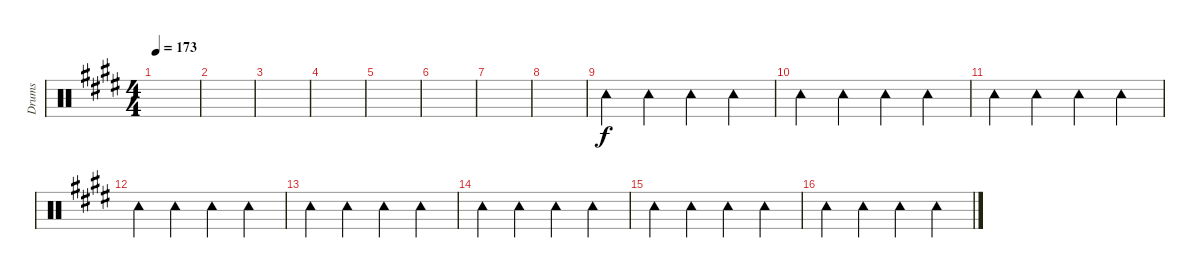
\track ("Drums" "Drums") {instrument percussion}
\staff {score}
\articulation defaults
\ts (4 4)
\tempo 173
\clef neutral
\ks e
|
|
|
|
|
|
|
|
"Tambourine (hit)".4 "Tambourine (hit)".4 "Tambourine (hit)".4 "Tambourine (hit)".4 |
"Tambourine (hit)".4 "Tambourine (hit)".4 "Tambourine (hit)".4 "Tambourine (hit)".4 |
"Tambourine (hit)".4 "Tambourine (hit)".4 "Tambourine (hit)".4 "Tambourine (hit)".4 |
"Tambourine (hit)".4 "Tambourine (hit)".4 "Tambourine (hit)".4 "Tambourine (hit)".4 |
"Tambourine (hit)".4 "Tambourine (hit)".4 "Tambourine (hit)".4 "Tambourine (hit)".4 |
"Tambourine (hit)".4 "Tambourine (hit)".4 "Tambourine (hit)".4 "Tambourine (hit)".4 |
"Tambourine (hit)".4 "Tambourine (hit)".4 "Tambourine (hit)".4 "Tambourine (hit)".4 |
"Tambourine (hit)".4 "Tambourine (hit)".4 "Tambourine (hit)".4 "Tambourine (hit)".4
